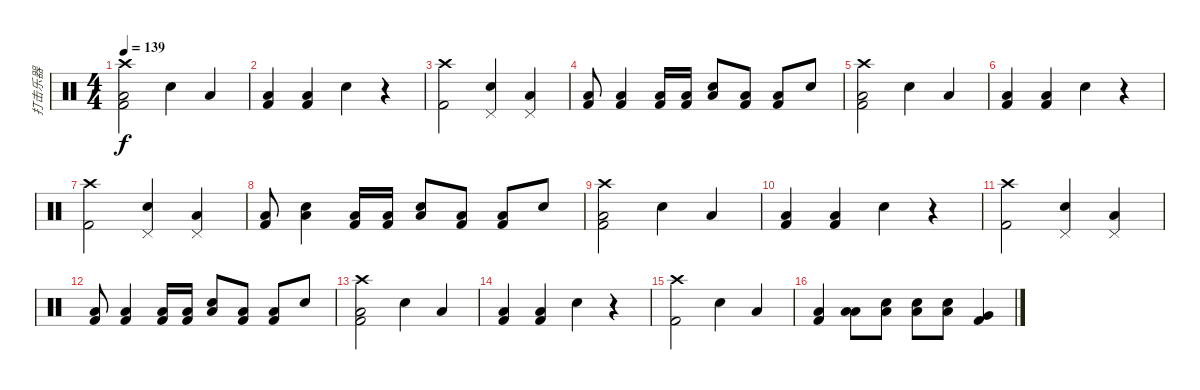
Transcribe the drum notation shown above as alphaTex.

\track ("打击乐器" "打击乐器") {instrument percussion}
\staff {score}
\articulation defaults
\ts (4 4)
\tempo 139
\clef neutral
\ks c
("Crash high (hit)" "Kick (hit) 2" "Low Floor Tom (hit)").2{dy f} "Electric Snare (hit)".4 "Low Floor Tom (hit)".4 |
("Kick (hit) 2" "Low Floor Tom (hit)").4 ("Kick (hit) 2" "Low Floor Tom (hit)").4 "Electric Snare (hit)".4 r.4 |
("Crash high (hit)" "Kick (hit) 2").2 ("Electric Snare (hit)" "Pedal Hi-Hat (hit)").4 ("Low Floor Tom (hit)" "Pedal Hi-Hat (hit)").4 |
("Kick (hit) 2" "Low Tom (hit)").8 ("Kick (hit) 2" "Low Floor Tom (hit)").4 ("Kick (hit) 2" "Low Floor Tom (hit)").16 ("Kick (hit) 2" "Low Floor Tom (hit)").16 ("Electric Snare (hit)" "Low Tom (hit)").8 ("Kick (hit) 2" "Low Floor Tom (hit)").8 ("Kick (hit) 2" "Low Floor Tom (hit)").8 "Electric Snare (hit)".8 |
("Crash high (hit)" "Kick (hit) 2" "Low Floor Tom (hit)").2 "Electric Snare (hit)".4 "Low Floor Tom (hit)".4 |
("Kick (hit) 2" "Low Floor Tom (hit)").4 ("Kick (hit) 2" "Low Floor Tom (hit)").4 "Electric Snare (hit)".4 r.4 |
("Crash high (hit)" "Kick (hit) 2").2 ("Electric Snare (hit)" "Pedal Hi-Hat (hit)").4 ("Low Floor Tom (hit)" "Pedal Hi-Hat (hit)").4 |
("Kick (hit) 2" "Low Floor Tom (hit)").8 ("Electric Snare (hit)" "Low Tom (hit)").4 ("Kick (hit) 2" "Low Floor Tom (hit)").16 ("Kick (hit) 2" "Low Floor Tom (hit)").16 ("Electric Snare (hit)" "Low Tom (hit)").8 ("Kick (hit) 2" "Low Floor Tom (hit)").8 ("Kick (hit) 2" "Low Floor Tom (hit)").8 "Electric Snare (hit)".8 |
("Crash high (hit)" "Kick (hit) 2" "Low Floor Tom (hit)").2 "Electric Snare (hit)".4 "Low Floor Tom (hit)".4 |
("Kick (hit) 2" "Low Floor Tom (hit)").4 ("Kick (hit) 2" "Low Floor Tom (hit)").4 "Electric Snare (hit)".4 r.4 |
("Crash high (hit)" "Kick (hit) 2").2 ("Electric Snare (hit)" "Pedal Hi-Hat (hit)").4 ("Low Floor Tom (hit)" "Pedal Hi-Hat (hit)").4 |
("Kick (hit) 2" "Low Tom (hit)").8 ("Kick (hit) 2" "Low Floor Tom (hit)").4 ("Kick (hit) 2" "Low Floor Tom (hit)").16 ("Kick (hit) 2" "Low Floor Tom (hit)").16 ("Electric Snare (hit)" "Low Tom (hit)").8 ("Kick (hit) 2" "Low Floor Tom (hit)").8 ("Kick (hit) 2" "Low Floor Tom (hit)").8 "Electric Snare (hit)".8 |
("Crash high (hit)" "Kick (hit) 2" "Low Floor Tom (hit)").2 "Electric Snare (hit)".4 "Low Floor Tom (hit)".4 |
("Kick (hit) 2" "Low Floor Tom (hit)").4 ("Kick (hit) 2" "Low Floor Tom (hit)").4 "Electric Snare (hit)".4 r.4 |
("Crash high (hit)" "Kick (hit) 2").2 "Electric Snare (hit)".4 "Low Floor Tom (hit)".4 |
("Kick (hit) 2" "Low Floor Tom (hit)").4 ("Low Floor Tom (hit)" "Low Floor Tom (hit)").8 ("Electric Snare (hit)" "Low Floor Tom (hit)").8 ("Electric Snare (hit)" "Low Tom (hit)").8 ("Electric Snare (hit)" "Low Tom (hit)").8 ("Kick (hit) 2" "Very Low Tom (hit)").4
